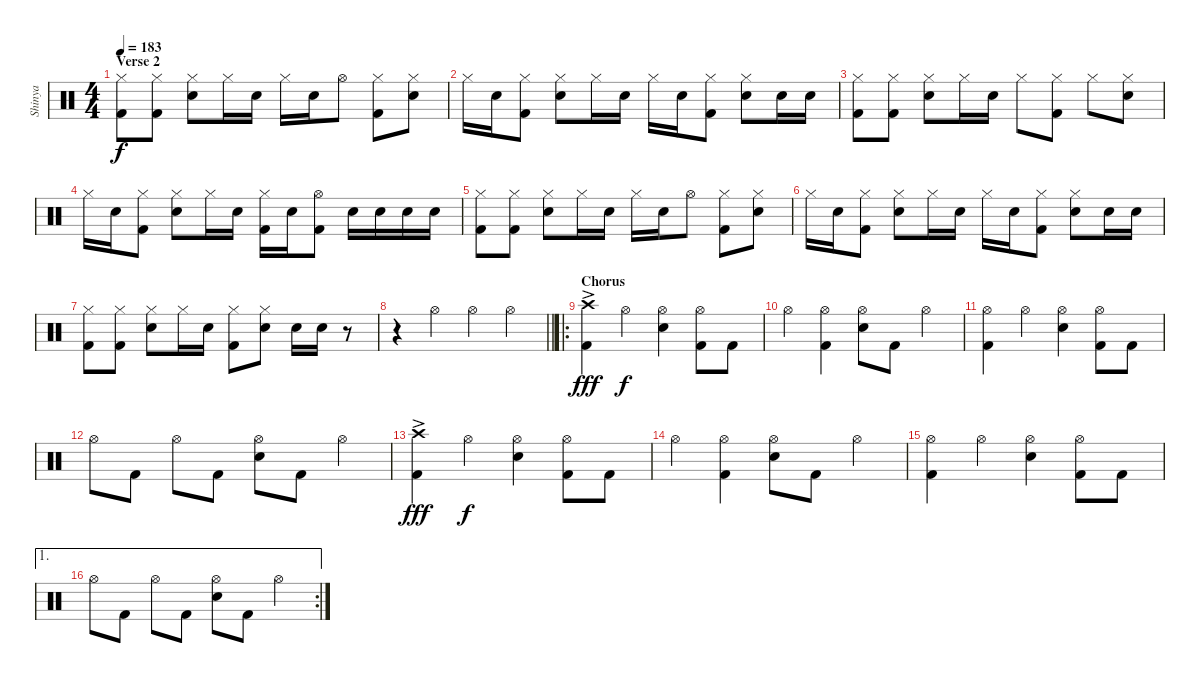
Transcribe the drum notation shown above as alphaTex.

\track ("Shinya" "Shinya") {instrument percussion}
\staff {score}
\articulation defaults
\ts (4 4)
\section ("" "Verse 2")
\tempo 183
\clef neutral
\ks c
("Hi-Hat (closed)" "Kick (hit) 2").8{dy f} ("Hi-Hat (closed)" "Kick (hit) 2").8 ("Hi-Hat (closed)" "Snare (hit) 2").8 "Hi-Hat (closed)".16 "Snare (hit) 2".16 "Hi-Hat (closed)".16 "Snare (hit) 2".16 "Hi-Hat (open)".8 ("Hi-Hat (closed)" "Kick (hit) 2").8 ("Hi-Hat (closed)" "Snare (hit) 2").8 |
"Hi-Hat (closed)".16 "Snare (hit) 2".16 ("Hi-Hat (closed)" "Kick (hit) 2").8 ("Hi-Hat (closed)" "Snare (hit) 2").8 "Hi-Hat (closed)".16 "Snare (hit) 2".16 "Hi-Hat (closed)".16 "Snare (hit) 2".16 ("Hi-Hat (closed)" "Kick (hit) 2").8 ("Hi-Hat (closed)" "Snare (hit) 2").8 "Snare (hit) 2".16 "Snare (hit) 2".16 |
("Hi-Hat (closed)" "Kick (hit) 2").8 ("Hi-Hat (closed)" "Kick (hit) 2").8 ("Hi-Hat (closed)" "Snare (hit) 2").8 "Hi-Hat (closed)".16 "Snare (hit) 2".16 "Hi-Hat (closed)".8 ("Hi-Hat (closed)" "Kick (hit) 2").8 "Hi-Hat (closed)".8 ("Hi-Hat (closed)" "Snare (hit) 2").8 |
"Hi-Hat (closed)".16 "Snare (hit) 2".16 ("Hi-Hat (closed)" "Kick (hit) 2").8 ("Hi-Hat (closed)" "Snare (hit) 2").8 "Hi-Hat (closed)".16 "Snare (hit) 2".16 ("Hi-Hat (closed)" "Kick (hit) 2").16 "Snare (hit) 2".16 ("Hi-Hat (open)" "Kick (hit) 2").8 "Snare (hit) 2".16 "Snare (hit) 2".16 "Snare (hit) 2".16 "Snare (hit) 2".16 |
("Hi-Hat (closed)" "Kick (hit) 2").8 ("Hi-Hat (closed)" "Kick (hit) 2").8 ("Hi-Hat (closed)" "Snare (hit) 2").8 "Hi-Hat (closed)".16 "Snare (hit) 2".16 "Hi-Hat (closed)".16 "Snare (hit) 2".16 "Hi-Hat (open)".8 ("Hi-Hat (closed)" "Kick (hit) 2").8 ("Hi-Hat (closed)" "Snare (hit) 2").8 |
"Hi-Hat (closed)".16 "Snare (hit) 2".16 ("Hi-Hat (closed)" "Kick (hit) 2").8 ("Hi-Hat (closed)" "Snare (hit) 2").8 "Hi-Hat (closed)".16 "Snare (hit) 2".16 "Hi-Hat (closed)".16 "Snare (hit) 2".16 ("Hi-Hat (closed)" "Kick (hit) 2").8 ("Hi-Hat (closed)" "Snare (hit) 2").8 "Snare (hit) 2".16 "Snare (hit) 2".16 |
("Hi-Hat (closed)" "Kick (hit) 2").8 ("Hi-Hat (closed)" "Kick (hit) 2").8 ("Hi-Hat (closed)" "Snare (hit) 2").8 "Hi-Hat (closed)".16 "Snare (hit) 2".16 ("Hi-Hat (closed)" "Kick (hit) 2").8 ("Hi-Hat (closed)" "Snare (hit) 2").8 "Snare (hit) 2".16 "Snare (hit) 2".16 r.8 |
\barLineRight lightlight
r.4 "Hi-Hat (open)".4 "Hi-Hat (open)".4 "Hi-Hat (open)".4 |
\ro
\section ("" "Chorus")
("Crash high (hit)"{ac} "Kick (hit) 2").4{dy fff} "Hi-Hat (open)".4{dy f} ("Hi-Hat (open)" "Snare (hit) 2").4 ("Hi-Hat (open)" "Kick (hit) 2").8 "Kick (hit) 2".8 |
"Hi-Hat (open)".4 ("Hi-Hat (open)" "Kick (hit) 2").4 ("Hi-Hat (open)" "Snare (hit) 2").8 "Kick (hit) 2".8 "Hi-Hat (open)".4 |
("Hi-Hat (open)" "Kick (hit) 2").4 "Hi-Hat (open)".4 ("Hi-Hat (open)" "Snare (hit) 2").4 ("Hi-Hat (open)" "Kick (hit) 2").8 "Kick (hit) 2".8 |
"Hi-Hat (open)".8 "Kick (hit) 2".8 "Hi-Hat (open)".8 "Kick (hit) 2".8 ("Hi-Hat (open)" "Snare (hit) 2").8 "Kick (hit) 2".8 "Hi-Hat (open)".4 |
("Crash high (hit)"{ac} "Kick (hit) 2").4{dy fff} "Hi-Hat (open)".4{dy f} ("Hi-Hat (open)" "Snare (hit) 2").4 ("Hi-Hat (open)" "Kick (hit) 2").8 "Kick (hit) 2".8 |
"Hi-Hat (open)".4 ("Hi-Hat (open)" "Kick (hit) 2").4 ("Hi-Hat (open)" "Snare (hit) 2").8 "Kick (hit) 2".8 "Hi-Hat (open)".4 |
("Hi-Hat (open)" "Kick (hit) 2").4 "Hi-Hat (open)".4 ("Hi-Hat (open)" "Snare (hit) 2").4 ("Hi-Hat (open)" "Kick (hit) 2").8 "Kick (hit) 2".8 |
\ae 1
\rc 2 "Hi-Hat (open)".8 "Kick (hit) 2".8 "Hi-Hat (open)".8 "Kick (hit) 2".8
("Hi-Hat (open)" "Snare (hit) 2").8 "Kick (hit) 2".8 "Hi-Hat (open)".4
